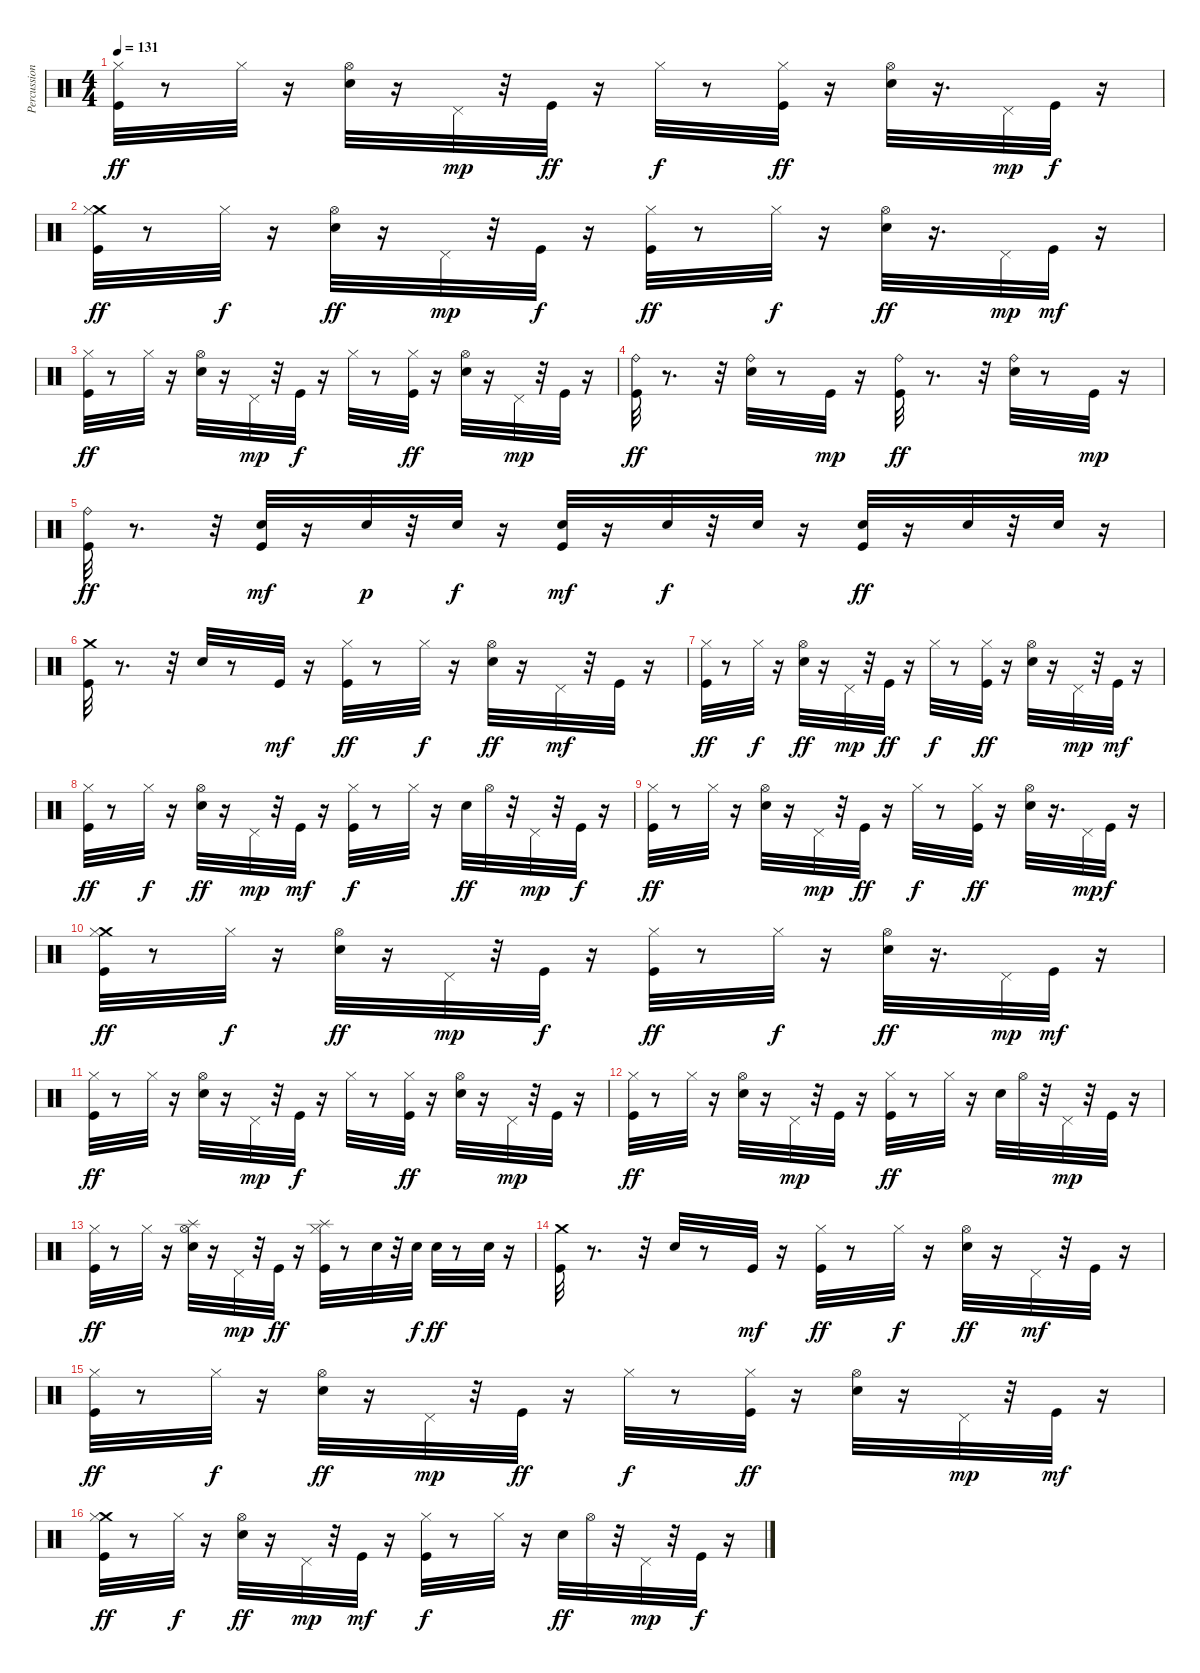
\track ("Percussion" "Percussion") {instrument percussion}
\staff {score}
\articulation defaults
\ts (4 4)
\tempo 131
\clef neutral
\ks c
("Kick (hit)" "Hi-Hat (closed)").32{dy ff} r.8 "Hi-Hat (closed)".32 r.16 ("Hi-Hat (open)" "Electric Snare (hit)").32 r.16 "Pedal Hi-Hat (hit)".32{dy mp} r.32 "Kick (hit)".32{dy ff} r.16 "Hi-Hat (closed)".32{dy f} r.8 ("Kick (hit)" "Hi-Hat (closed)").32{dy ff} r.16 ("Hi-Hat (open)" "Electric Snare (hit)").32 r.16{d} "Pedal Hi-Hat (hit)".32{dy mp} "Kick (hit)".32{dy f} r.16 |
("Kick (hit)" "Crash medium (hit)" "Hi-Hat (closed)").32{dy ff} r.8 "Hi-Hat (closed)".32{dy f} r.16 ("Electric Snare (hit)" "Hi-Hat (open)").32{dy ff} r.16 "Pedal Hi-Hat (hit)".32{dy mp} r.32 "Kick (hit)".32{dy f} r.16 ("Kick (hit)" "Hi-Hat (closed)").32{dy ff} r.8 "Hi-Hat (closed)".32{dy f} r.16 ("Hi-Hat (open)" "Electric Snare (hit)").32{dy ff} r.16{d} "Pedal Hi-Hat (hit)".32{dy mp} "Kick (hit)".32{dy mf} r.16 |
("Kick (hit)" "Hi-Hat (closed)").32{dy ff} r.8 "Hi-Hat (closed)".32 r.16 ("Electric Snare (hit)" "Hi-Hat (open)").32 r.16 "Pedal Hi-Hat (hit)".32{dy mp} r.32 "Kick (hit)".32{dy f} r.16 "Hi-Hat (closed)".32 r.8 ("Kick (hit)" "Hi-Hat (closed)").32{dy ff} r.16 ("Hi-Hat (open)" "Electric Snare (hit)").32 r.16 "Pedal Hi-Hat (hit)".32{dy mp} r.32 "Kick (hit)".32 r.16 |
("Kick (hit)" "Ride (bell)").32{dy ff} r.8{d} r.32 ("Ride (bell)" "Electric Snare (hit)").32 r.8 "Kick (hit)".32{dy mp} r.16 ("Kick (hit)" "Ride (bell)").32{dy ff} r.8{d} r.32 ("Electric Snare (hit)" "Ride (bell)").32 r.8 "Kick (hit)".32{dy mp} r.16 |
("Kick (hit)" "Ride (bell)").32{dy ff} r.8{d} r.32 ("Kick (hit)" "Electric Snare (hit)").32{dy mf} r.16 "Electric Snare (hit)".32{dy p} r.32 "Electric Snare (hit)".32{dy f} r.16 ("Kick (hit)" "Electric Snare (hit)").32{dy mf} r.16 "Electric Snare (hit)".32{dy f} r.32 "Electric Snare (hit)".32 r.16 ("Kick (hit)" "Electric Snare (hit)").32{dy ff} r.16 "Electric Snare (hit)".32 r.32 "Electric Snare (hit)".32 r.16 |
("Kick (hit)" "Crash medium (hit)").32 r.8{d} r.32 "Electric Snare (hit)".32 r.8 "Kick (hit)".32{dy mf} r.16 ("Kick (hit)" "Hi-Hat (closed)").32{dy ff} r.8 "Hi-Hat (closed)".32{dy f} r.16 ("Hi-Hat (open)" "Electric Snare (hit)").32{dy ff} r.16 "Pedal Hi-Hat (hit)".32{dy mf} r.32 "Kick (hit)".32 r.16 |
("Kick (hit)" "Hi-Hat (closed)").32{dy ff} r.8 "Hi-Hat (closed)".32{dy f} r.16 ("Electric Snare (hit)" "Hi-Hat (open)").32{dy ff} r.16 "Pedal Hi-Hat (hit)".32{dy mp} r.32 "Kick (hit)".32{dy ff} r.16 "Hi-Hat (closed)".32{dy f} r.8 ("Kick (hit)" "Hi-Hat (closed)").32{dy ff} r.16 ("Electric Snare (hit)" "Hi-Hat (open)").32 r.16 "Pedal Hi-Hat (hit)".32{dy mp} r.32 "Kick (hit)".32{dy mf} r.16 |
("Kick (hit)" "Hi-Hat (closed)").32{dy ff} r.8 "Hi-Hat (closed)".32{dy f} r.16 ("Electric Snare (hit)" "Hi-Hat (open)").32{dy ff} r.16 "Pedal Hi-Hat (hit)".32{dy mp} r.32 "Kick (hit)".32{dy mf} r.16 ("Kick (hit)" "Hi-Hat (closed)").32{dy f} r.8 "Hi-Hat (closed)".32 r.16 "Electric Snare (hit)".32{dy ff} "Hi-Hat (open)".32 r.32 "Pedal Hi-Hat (hit)".32{dy mp} r.32 "Kick (hit)".32{dy f} r.16 |
("Kick (hit)" "Hi-Hat (closed)").32{dy ff} r.8 "Hi-Hat (closed)".32 r.16 ("Hi-Hat (open)" "Electric Snare (hit)").32 r.16 "Pedal Hi-Hat (hit)".32{dy mp} r.32 "Kick (hit)".32{dy ff} r.16 "Hi-Hat (closed)".32{dy f} r.8 ("Kick (hit)" "Hi-Hat (closed)").32{dy ff} r.16 ("Hi-Hat (open)" "Electric Snare (hit)").32 r.16{d} "Pedal Hi-Hat (hit)".32{dy mp} "Kick (hit)".32{dy f} r.16 |
("Kick (hit)" "Crash medium (hit)" "Hi-Hat (closed)").32{dy ff} r.8 "Hi-Hat (closed)".32{dy f} r.16 ("Electric Snare (hit)" "Hi-Hat (open)").32{dy ff} r.16 "Pedal Hi-Hat (hit)".32{dy mp} r.32 "Kick (hit)".32{dy f} r.16 ("Kick (hit)" "Hi-Hat (closed)").32{dy ff} r.8 "Hi-Hat (closed)".32{dy f} r.16 ("Hi-Hat (open)" "Electric Snare (hit)").32{dy ff} r.16{d} "Pedal Hi-Hat (hit)".32{dy mp} "Kick (hit)".32{dy mf} r.16 |
("Kick (hit)" "Hi-Hat (closed)").32{dy ff} r.8 "Hi-Hat (closed)".32 r.16 ("Electric Snare (hit)" "Hi-Hat (open)").32 r.16 "Pedal Hi-Hat (hit)".32{dy mp} r.32 "Kick (hit)".32{dy f} r.16 "Hi-Hat (closed)".32 r.8 ("Kick (hit)" "Hi-Hat (closed)").32{dy ff} r.16 ("Hi-Hat (open)" "Electric Snare (hit)").32 r.16 "Pedal Hi-Hat (hit)".32{dy mp} r.32 "Kick (hit)".32 r.16 |
("Kick (hit)" "Hi-Hat (closed)").32{dy ff} r.8 "Hi-Hat (closed)".32 r.16 ("Electric Snare (hit)" "Hi-Hat (open)").32 r.16 "Pedal Hi-Hat (hit)".32{dy mp} r.32 "Kick (hit)".32 r.16 ("Kick (hit)" "Hi-Hat (closed)").32{dy ff} r.8 "Hi-Hat (closed)".32 r.16 "Electric Snare (hit)".32 "Hi-Hat (open)".32 r.32 "Pedal Hi-Hat (hit)".32{dy mp} r.32 "Kick (hit)".32 r.16 |
("Kick (hit)" "Hi-Hat (closed)").32{dy ff} r.8 "Hi-Hat (closed)".32 r.16 ("Electric Snare (hit)" "Hi-Hat (open)" "Splash (hit)").32 r.16 "Pedal Hi-Hat (hit)".32{dy mp} r.32 "Kick (hit)".32{dy ff} r.16 ("Kick (hit)" "Splash (hit)" "Hi-Hat (closed)").32 r.8 "Electric Snare (hit)".32 r.32 "Electric Snare (hit)".32{dy f} "Electric Snare (hit)".32{dy ff} r.8 "Electric Snare (hit)".32 r.16 |
("Kick (hit)" "Crash medium (hit)").32 r.8{d} r.32 "Electric Snare (hit)".32 r.8 "Kick (hit)".32{dy mf} r.16 ("Kick (hit)" "Hi-Hat (closed)").32{dy ff} r.8 "Hi-Hat (closed)".32{dy f} r.16 ("Hi-Hat (open)" "Electric Snare (hit)").32{dy ff} r.16 "Pedal Hi-Hat (hit)".32{dy mf} r.32 "Kick (hit)".32 r.16 |
("Kick (hit)" "Hi-Hat (closed)").32{dy ff} r.8 "Hi-Hat (closed)".32{dy f} r.16 ("Electric Snare (hit)" "Hi-Hat (open)").32{dy ff} r.16 "Pedal Hi-Hat (hit)".32{dy mp} r.32 "Kick (hit)".32{dy ff} r.16 "Hi-Hat (closed)".32{dy f} r.8 ("Kick (hit)" "Hi-Hat (closed)").32{dy ff} r.16 ("Electric Snare (hit)" "Hi-Hat (open)").32 r.16 "Pedal Hi-Hat (hit)".32{dy mp} r.32 "Kick (hit)".32{dy mf} r.16 |
("Crash medium (hit)" "Kick (hit)" "Hi-Hat (closed)").32{dy ff} r.8 "Hi-Hat (closed)".32{dy f} r.16 ("Electric Snare (hit)" "Hi-Hat (open)").32{dy ff} r.16 "Pedal Hi-Hat (hit)".32{dy mp} r.32 "Kick (hit)".32{dy mf} r.16 ("Kick (hit)" "Hi-Hat (closed)").32{dy f} r.8 "Hi-Hat (closed)".32 r.16 "Electric Snare (hit)".32{dy ff} "Hi-Hat (open)".32 r.32 "Pedal Hi-Hat (hit)".32{dy mp} r.32 "Kick (hit)".32{dy f} r.16
